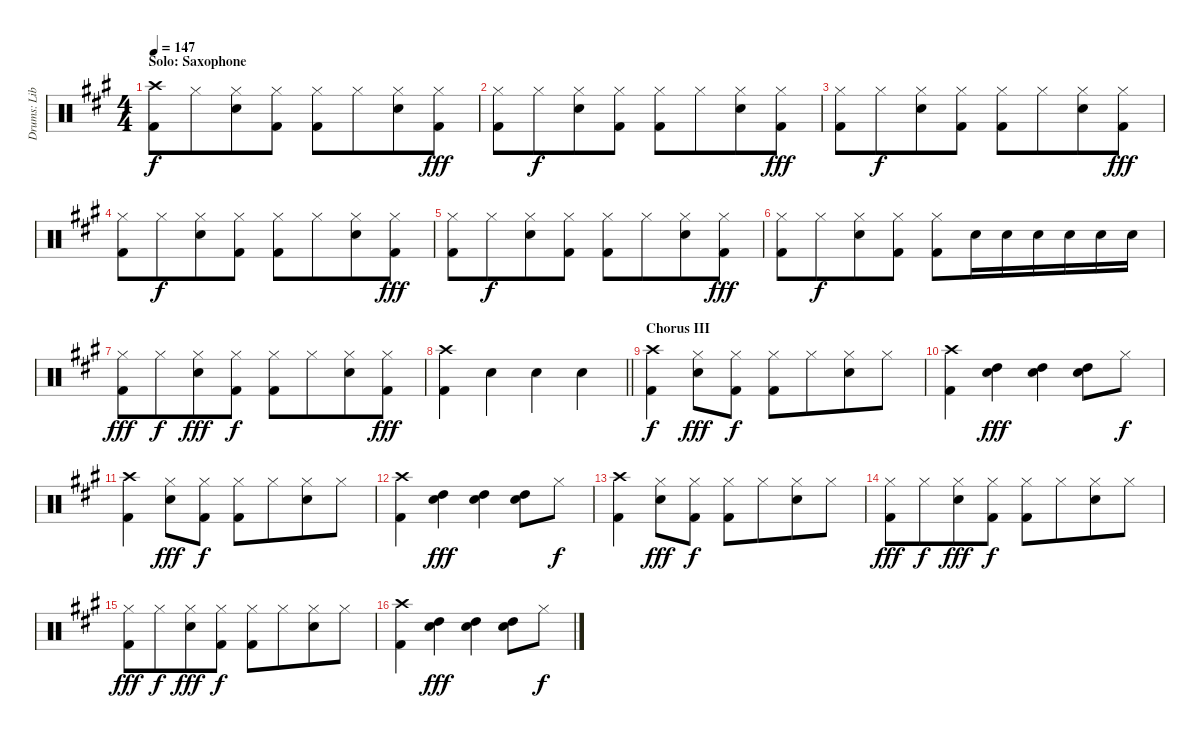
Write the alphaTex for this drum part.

\track ("Drums: Liberty" "Drums: Lib") {instrument percussion}
\staff {score}
\articulation defaults
\ts (4 4)
\section ("" "Solo: Saxophone")
\tempo 147
\clef neutral
\ks a
("Crash high (hit)" "Kick (hit) 2").8{dy f} "Hi-Hat (closed)".8{beam merge} ("Hi-Hat (closed)" "Electric Snare (hit)").8 ("Hi-Hat (closed)" "Kick (hit) 2").8 ("Hi-Hat (closed)" "Kick (hit) 2").8 "Hi-Hat (closed)".8{beam merge} ("Hi-Hat (closed)" "Electric Snare (hit)").8 ("Hi-Hat (closed)" "Kick (hit) 2").8{dy fff} |
("Hi-Hat (closed)" "Kick (hit) 2").8 "Hi-Hat (closed)".8{dy f beam merge} ("Hi-Hat (closed)" "Electric Snare (hit)").8 ("Hi-Hat (closed)" "Kick (hit) 2").8 ("Hi-Hat (closed)" "Kick (hit) 2").8 "Hi-Hat (closed)".8{beam merge} ("Hi-Hat (closed)" "Electric Snare (hit)").8 ("Hi-Hat (closed)" "Kick (hit) 2").8{dy fff} |
("Hi-Hat (closed)" "Kick (hit) 2").8 "Hi-Hat (closed)".8{dy f beam merge} ("Hi-Hat (closed)" "Electric Snare (hit)").8 ("Hi-Hat (closed)" "Kick (hit) 2").8 ("Hi-Hat (closed)" "Kick (hit) 2").8 "Hi-Hat (closed)".8{beam merge} ("Hi-Hat (closed)" "Electric Snare (hit)").8 ("Hi-Hat (closed)" "Kick (hit) 2").8{dy fff} |
("Hi-Hat (closed)" "Kick (hit) 2").8 "Hi-Hat (closed)".8{dy f beam merge} ("Hi-Hat (closed)" "Electric Snare (hit)").8 ("Hi-Hat (closed)" "Kick (hit) 2").8 ("Hi-Hat (closed)" "Kick (hit) 2").8 "Hi-Hat (closed)".8{beam merge} ("Hi-Hat (closed)" "Electric Snare (hit)").8 ("Hi-Hat (closed)" "Kick (hit) 2").8{dy fff} |
("Hi-Hat (closed)" "Kick (hit) 2").8 "Hi-Hat (closed)".8{dy f beam merge} ("Hi-Hat (closed)" "Electric Snare (hit)").8 ("Hi-Hat (closed)" "Kick (hit) 2").8 ("Hi-Hat (closed)" "Kick (hit) 2").8 "Hi-Hat (closed)".8{beam merge} ("Hi-Hat (closed)" "Electric Snare (hit)").8 ("Hi-Hat (closed)" "Kick (hit) 2").8{dy fff} |
("Hi-Hat (closed)" "Kick (hit) 2").8 "Hi-Hat (closed)".8{dy f beam merge} ("Hi-Hat (closed)" "Electric Snare (hit)").8 ("Hi-Hat (closed)" "Kick (hit) 2").8 ("Hi-Hat (closed)" "Kick (hit) 2").8{beam merge} "Electric Snare (hit)".16{beam merge} "Electric Snare (hit)".16{beam merge} "Electric Snare (hit)".16{beam merge} "Electric Snare (hit)".16{beam merge} "Electric Snare (hit)".16{beam merge} "Electric Snare (hit)".16 |
("Hi-Hat (closed)" "Kick (hit) 2").8{dy fff} "Hi-Hat (closed)".8{dy f beam merge} ("Hi-Hat (closed)" "Electric Snare (hit)").8{dy fff} ("Hi-Hat (closed)" "Kick (hit) 2").8{dy f} ("Hi-Hat (closed)" "Kick (hit) 2").8 "Hi-Hat (closed)".8{beam merge} ("Hi-Hat (closed)" "Electric Snare (hit)").8 ("Hi-Hat (closed)" "Kick (hit) 2").8{dy fff} |
\barLineRight lightlight
("Crash high (hit)" "Kick (hit) 2").4{beam merge} "Electric Snare (hit)".4{beam merge} "Electric Snare (hit)".4{beam merge} "Electric Snare (hit)".4 |
\section ("" "Chorus III")
("Crash high (hit)" "Kick (hit) 2").4{dy f} ("Hi-Hat (closed)" "Electric Snare (hit)").8{dy fff} ("Hi-Hat (closed)" "Kick (hit) 2").8{dy f} ("Hi-Hat (closed)" "Kick (hit) 2").8 "Hi-Hat (closed)".8{beam merge} ("Hi-Hat (closed)" "Electric Snare (hit)").8 "Hi-Hat (closed)".8 |
("Crash high (hit)" "Kick (hit) 2").4 ("Electric Snare (hit)" "High Tom (hit)").4{dy fff} ("Electric Snare (hit)" "High Tom (hit)").4 ("Electric Snare (hit)" "High Tom (hit)").8 "Hi-Hat (closed)".8{dy f} |
("Crash high (hit)" "Kick (hit) 2").4 ("Hi-Hat (closed)" "Electric Snare (hit)").8{dy fff} ("Hi-Hat (closed)" "Kick (hit) 2").8{dy f} ("Hi-Hat (closed)" "Kick (hit) 2").8 "Hi-Hat (closed)".8{beam merge} ("Hi-Hat (closed)" "Electric Snare (hit)").8 "Hi-Hat (closed)".8 |
("Crash high (hit)" "Kick (hit) 2").4 ("Electric Snare (hit)" "High Tom (hit)").4{dy fff} ("Electric Snare (hit)" "High Tom (hit)").4 ("Electric Snare (hit)" "High Tom (hit)").8 "Hi-Hat (closed)".8{dy f} |
("Crash high (hit)" "Kick (hit) 2").4 ("Hi-Hat (closed)" "Electric Snare (hit)").8{dy fff} ("Hi-Hat (closed)" "Kick (hit) 2").8{dy f} ("Hi-Hat (closed)" "Kick (hit) 2").8 "Hi-Hat (closed)".8{beam merge} ("Hi-Hat (closed)" "Electric Snare (hit)").8 "Hi-Hat (closed)".8 |
("Hi-Hat (closed)" "Kick (hit) 2").8{dy fff} "Hi-Hat (closed)".8{dy f beam merge} ("Hi-Hat (closed)" "Electric Snare (hit)").8{dy fff} ("Hi-Hat (closed)" "Kick (hit) 2").8{dy f} ("Hi-Hat (closed)" "Kick (hit) 2").8 "Hi-Hat (closed)".8{beam merge} ("Hi-Hat (closed)" "Electric Snare (hit)").8 "Hi-Hat (closed)".8 |
("Hi-Hat (closed)" "Kick (hit) 2").8{dy fff} "Hi-Hat (closed)".8{dy f beam merge} ("Hi-Hat (closed)" "Electric Snare (hit)").8{dy fff} ("Hi-Hat (closed)" "Kick (hit) 2").8{dy f} ("Hi-Hat (closed)" "Kick (hit) 2").8 "Hi-Hat (closed)".8{beam merge} ("Hi-Hat (closed)" "Electric Snare (hit)").8 "Hi-Hat (closed)".8 |
("Crash high (hit)" "Kick (hit) 2").4 ("Electric Snare (hit)" "High Tom (hit)").4{dy fff} ("Electric Snare (hit)" "High Tom (hit)").4 ("Electric Snare (hit)" "High Tom (hit)").8 "Hi-Hat (closed)".8{dy f}
